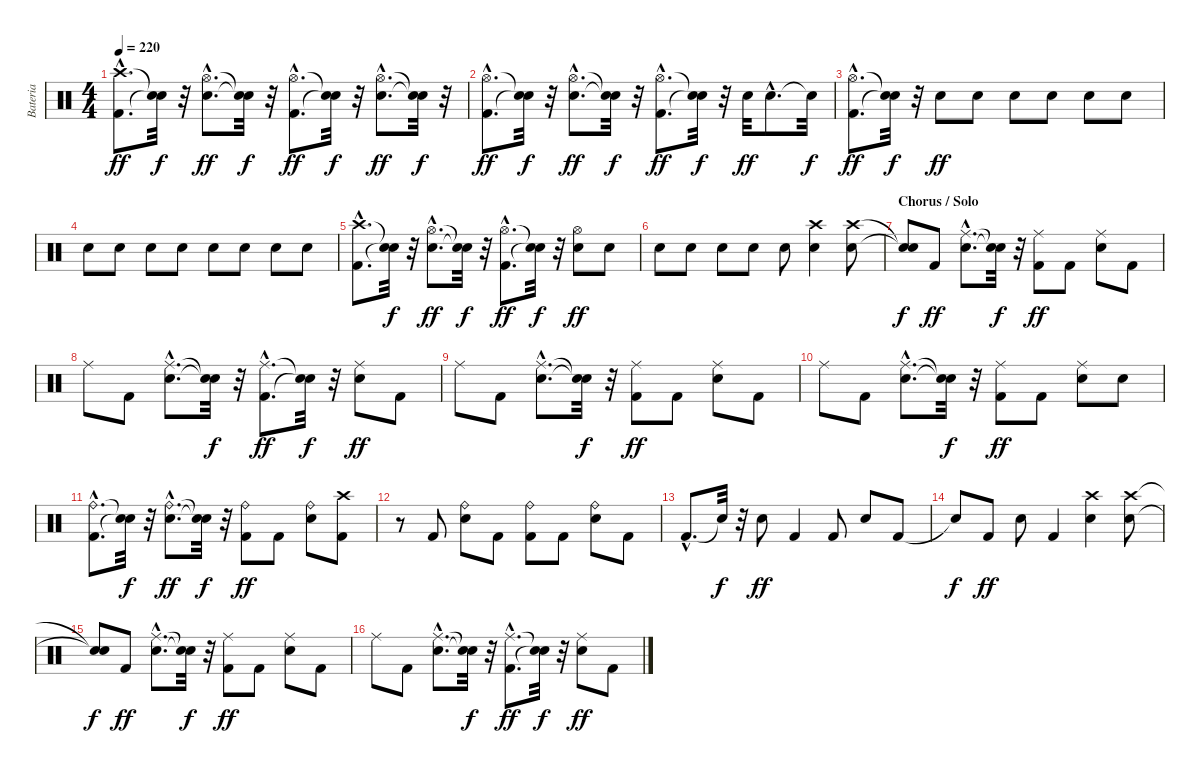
\track ("Bateria" "Bateria") {instrument percussion}
\staff {score}
\articulation defaults
\ts (4 4)
\tempo 220
\clef neutral
\ks c
("Kick (hit) 2"{hac} "Crash high (hit)"{hac}).8{d dy ff} ("Snare (hit)"{t} "Snare (hit)"{t}).32{dy f} r.32 ("Electric Snare (hit)"{hac} "Hi-Hat (open)"{hac}).8{d dy ff} ("Snare (hit)"{t} "Snare (hit)"{t}).32{dy f} r.32 ("Kick (hit) 2"{hac} "Hi-Hat (open)"{hac}).8{d dy ff} ("Snare (hit)"{t} "Snare (hit)"{t}).32{dy f} r.32 ("Electric Snare (hit)"{hac} "Hi-Hat (open)"{hac}).8{d dy ff} ("Snare (hit)"{t} "Snare (hit)"{t}).32{dy f} r.32 |
("Kick (hit) 2"{hac} "Hi-Hat (open)"{hac}).8{d dy ff} ("Snare (hit)"{t} "Snare (hit)"{t}).32{dy f} r.32 ("Electric Snare (hit)"{hac} "Hi-Hat (open)"{hac}).8{d dy ff} ("Snare (hit)"{t} "Snare (hit)"{t}).32{dy f} r.32 ("Kick (hit) 2"{hac} "Hi-Hat (open)"{hac}).8{d dy ff} ("Snare (hit)"{t} "Snare (hit)"{t}).32{dy f} r.32 "Electric Snare (hit)".32{dy ff} "Electric Snare (hit)"{hac}.8{d} "Snare (hit)"{t}.32{dy f} |
("Kick (hit) 2"{hac} "Hi-Hat (open)"{hac}).8{d dy ff} ("Snare (hit)"{t} "Snare (hit)"{t}).32{dy f} r.32 "Electric Snare (hit)".8{dy ff} "Electric Snare (hit)".8 "Electric Snare (hit)".8 "Electric Snare (hit)".8 "Electric Snare (hit)".8 "Electric Snare (hit)".8 |
"Electric Snare (hit)".8 "Electric Snare (hit)".8 "Electric Snare (hit)".8 "Electric Snare (hit)".8 "Electric Snare (hit)".8 "Electric Snare (hit)".8 "Electric Snare (hit)".8 "Electric Snare (hit)".8 |
("Kick (hit) 2"{hac} "Crash high (hit)"{hac}).8{d} ("Snare (hit)"{t} "Snare (hit)"{t}).32{dy f} r.32 ("Electric Snare (hit)"{hac} "Hi-Hat (open)"{hac}).8{d dy ff} ("Snare (hit)"{t} "Snare (hit)"{t}).32{dy f} r.32 ("Kick (hit) 2"{hac} "Hi-Hat (open)"{hac}).8{d dy ff} ("Snare (hit)"{t} "Snare (hit)"{t}).32{dy f} r.32 ("Electric Snare (hit)" "Hi-Hat (open)").8{dy ff} "Electric Snare (hit)".8 |
"Electric Snare (hit)".8 "Electric Snare (hit)".8 "Electric Snare (hit)".8 "Electric Snare (hit)".8 "Electric Snare (hit)".8 ("Electric Snare (hit)" "Crash high (hit)").4 ("Electric Snare (hit)" "Crash high (hit)").8 |
\section ("" "Chorus / Solo")
("Snare (hit)"{t} "Snare (hit)"{t}).8{dy f} "Kick (hit) 2".8{dy ff} ("Electric Snare (hit)"{hac} "Ride (middle)"{hac}).8{d} ("Snare (hit)"{t} "Snare (hit)"{t}).32{dy f} r.32 ("Kick (hit) 2" "Ride (middle)").8{dy ff} "Kick (hit) 2".8 ("Electric Snare (hit)" "Ride (middle)").8 "Kick (hit) 2".8 |
"Ride (middle)".8 "Kick (hit) 2".8 ("Electric Snare (hit)"{hac} "Ride (middle)"{hac}).8{d} ("Snare (hit)"{t} "Snare (hit)"{t}).32{dy f} r.32 ("Kick (hit) 2"{hac} "Ride (middle)"{hac}).8{d dy ff} ("Snare (hit)"{t} "Snare (hit)"{t}).32{dy f} r.32 ("Electric Snare (hit)" "Ride (middle)").8{dy ff} "Kick (hit) 2".8 |
"Ride (middle)".8 "Kick (hit) 2".8 ("Electric Snare (hit)"{hac} "Ride (middle)"{hac}).8{d} ("Snare (hit)"{t} "Snare (hit)"{t}).32{dy f} r.32 ("Kick (hit) 2" "Ride (middle)").8{dy ff} "Kick (hit) 2".8 ("Electric Snare (hit)" "Ride (middle)").8 "Kick (hit) 2".8 |
"Ride (middle)".8 "Kick (hit) 2".8 ("Electric Snare (hit)"{hac} "Ride (middle)"{hac}).8{d} ("Snare (hit)"{t} "Snare (hit)"{t}).32{dy f} r.32 ("Kick (hit) 2" "Ride (middle)").8{dy ff} "Kick (hit) 2".8 ("Electric Snare (hit)" "Ride (middle)").8 "Electric Snare (hit)".8 |
("Kick (hit) 2"{hac} "Ride (bell)"{hac}).8{d} ("Snare (hit)"{t} "Snare (hit)"{t}).32{dy f} r.32 ("Electric Snare (hit)"{hac} "Ride (bell)"{hac}).8{d dy ff} ("Snare (hit)"{t} "Snare (hit)"{t}).32{dy f} r.32 ("Kick (hit) 2" "Ride (bell)").8{dy ff} "Kick (hit) 2".8 ("Electric Snare (hit)" "Ride (bell)").8 ("Kick (hit) 2" "Crash high (hit)").8 |
r.8 "Kick (hit) 2".8 ("Electric Snare (hit)" "Ride (bell)").8 "Kick (hit) 2".8 ("Kick (hit) 2" "Ride (bell)").8 "Kick (hit) 2".8 ("Electric Snare (hit)" "Ride (bell)").8 "Kick (hit) 2".8 |
"Kick (hit) 2"{hac}.8{d} "Snare (hit)"{t}.32{dy f} r.32 "Electric Snare (hit)".8{dy ff} "Kick (hit) 2".4 "Kick (hit) 2".8 "Electric Snare (hit)".8 "Kick (hit) 2".8 |
"Snare (hit)"{t}.8{dy f} "Kick (hit) 2".8{dy ff} "Electric Snare (hit)".8 "Kick (hit) 2".4 ("Electric Snare (hit)" "Crash high (hit)").4 ("Electric Snare (hit)" "Crash high (hit)").8 |
("Snare (hit)"{t} "Snare (hit)"{t}).8{dy f} "Kick (hit) 2".8{dy ff} ("Electric Snare (hit)"{hac} "Ride (middle)"{hac}).8{d} ("Snare (hit)"{t} "Snare (hit)"{t}).32{dy f} r.32 ("Kick (hit) 2" "Ride (middle)").8{dy ff} "Kick (hit) 2".8 ("Electric Snare (hit)" "Ride (middle)").8 "Kick (hit) 2".8 |
"Ride (middle)".8 "Kick (hit) 2".8 ("Electric Snare (hit)"{hac} "Ride (middle)"{hac}).8{d} ("Snare (hit)"{t} "Snare (hit)"{t}).32{dy f} r.32 ("Kick (hit) 2"{hac} "Ride (middle)"{hac}).8{d dy ff} ("Snare (hit)"{t} "Snare (hit)"{t}).32{dy f} r.32 ("Electric Snare (hit)" "Ride (middle)").8{dy ff} "Kick (hit) 2".8
